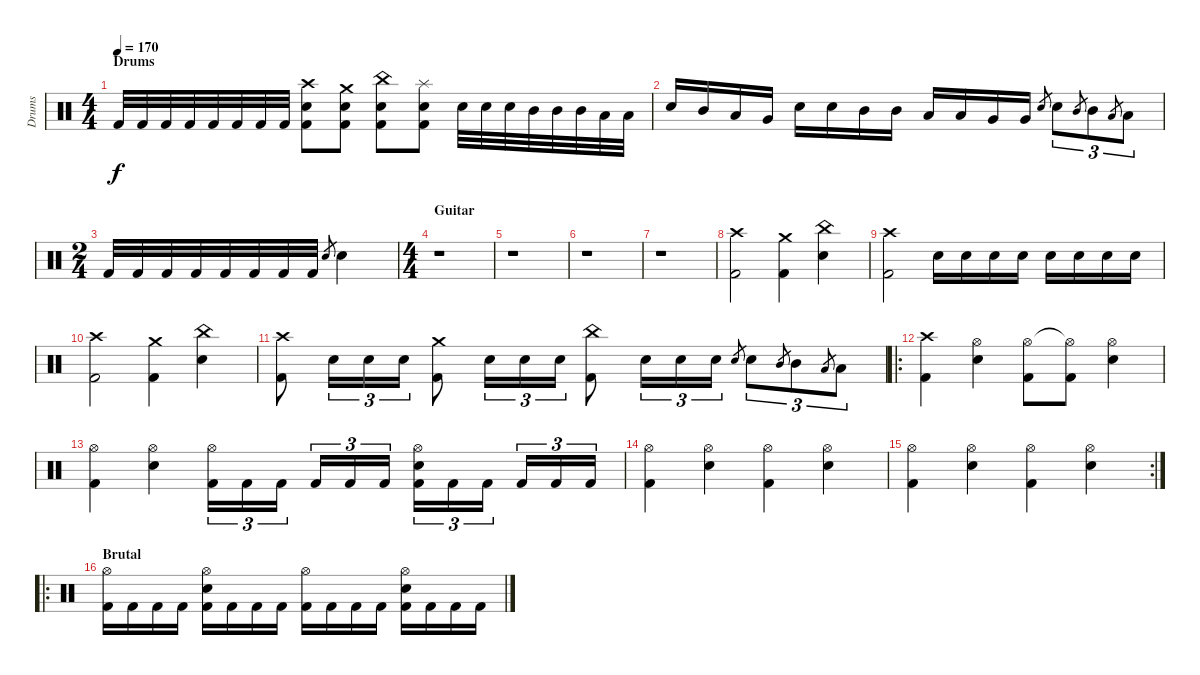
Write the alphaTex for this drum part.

\track ("Drums" "Drums") {instrument percussion}
\staff {score}
\articulation defaults
\ts (4 4)
\section ("" "Drums")
\tempo 170
\clef neutral
\ks c "Kick (hit) 2".32{dy f} "Kick (hit) 2".32 "Kick (hit) 2".32 "Kick (hit) 2".32 "Kick (hit) 2".32 "Kick (hit) 2".32 "Kick (hit) 2".32 "Kick (hit) 2".32
("Crash high (hit)" "Electric Snare (hit)" "Kick (hit) 2").8 ("Crash medium (hit)" "Electric Snare (hit)" "Kick (hit) 2").8 ("China (hit)" "Electric Snare (hit)" "Kick (hit) 2").8 ("Splash (hit)" "Electric Snare (hit)" "Kick (hit) 2").8 "Electric Snare (hit)".32 "Electric Snare (hit)".32 "Electric Snare (hit)".32 "Mid Tom (hit)".32 "Mid Tom (hit)".32 "Mid Tom (hit)".32 "Low Tom (hit)".32 "Low Tom (hit)".32 |
"Electric Snare (hit)".16 "Mid Tom (hit)".16 "Low Tom (hit)".16 "Very Low Tom (hit)".16 "Electric Snare (hit)".16 "Electric Snare (hit)".16 "Mid Tom (hit)".16 "Mid Tom (hit)".16 "Low Tom (hit)".16 "Low Tom (hit)".16 "Very Low Tom (hit)".16 "Very Low Tom (hit)".16 "Electric Snare (hit)".8{gr} "Electric Snare (hit)".8{tu (3 2)} "Mid Tom (hit)".8{gr} "Mid Tom (hit)".8{tu (3 2)} "Low Tom (hit)".8{gr} "Low Tom (hit)".8{tu (3 2)} |
\ts (2 4)
"Kick (hit) 2".32 "Kick (hit) 2".32 "Kick (hit) 2".32 "Kick (hit) 2".32 "Kick (hit) 2".32 "Kick (hit) 2".32 "Kick (hit) 2".32 "Kick (hit) 2".32 "Electric Snare (hit)".8{gr} "Electric Snare (hit)".4 |
\ts (4 4)
\section ("" "Guitar")
r.1 |
r.1 |
r.1 |
r.1 |
("Crash high (hit)" "Kick (hit) 2").2 ("Crash medium (hit)" "Kick (hit) 2").4 ("China (hit)" "Electric Snare (hit)").4 |
("Crash high (hit)" "Kick (hit) 2").2 "Electric Snare (hit)".16 "Electric Snare (hit)".16 "Electric Snare (hit)".16 "Electric Snare (hit)".16 "Electric Snare (hit)".16 "Electric Snare (hit)".16 "Electric Snare (hit)".16 "Electric Snare (hit)".16 |
("Crash high (hit)" "Kick (hit) 2").2 ("Crash medium (hit)" "Kick (hit) 2").4 ("China (hit)" "Electric Snare (hit)").4 |
("Crash high (hit)" "Kick (hit) 2").8 "Electric Snare (hit)".16{tu (3 2)} "Electric Snare (hit)".16{tu (3 2)} "Electric Snare (hit)".16{tu (3 2)} ("Crash medium (hit)" "Kick (hit) 2").8 "Electric Snare (hit)".16{tu (3 2)} "Electric Snare (hit)".16{tu (3 2)} "Electric Snare (hit)".16{tu (3 2)} ("China (hit)" "Kick (hit) 2").8 "Electric Snare (hit)".16{tu (3 2)} "Electric Snare (hit)".16{tu (3 2)} "Electric Snare (hit)".16{tu (3 2)} "Electric Snare (hit)".8{gr} "Electric Snare (hit)".8{tu (3 2)} "Mid Tom (hit)".8{gr} "Mid Tom (hit)".8{tu (3 2)} "Low Tom (hit)".8{gr} "Low Tom (hit)".8{tu (3 2)} |
\ro
("Crash high (hit)" "Kick (hit) 2").4 ("Hi-Hat (open)" "Electric Snare (hit)").4 ("Hi-Hat (open)" "Kick (hit) 2").8 ("Hi-Hat (open)"{t} "Kick (hit) 2").8 ("Hi-Hat (open)" "Electric Snare (hit)").4 |
("Hi-Hat (open)" "Kick (hit) 2").4 ("Hi-Hat (open)" "Electric Snare (hit)").4 ("Kick (hit) 2" "Hi-Hat (open)").16{tu (3 2)} "Kick (hit) 2".16{tu (3 2)} "Kick (hit) 2".16{tu (3 2)} "Kick (hit) 2".16{tu (3 2)} "Kick (hit) 2".16{tu (3 2)} "Kick (hit) 2".16{tu (3 2)} ("Kick (hit) 2" "Hi-Hat (open)" "Electric Snare (hit)").16{tu (3 2)} "Kick (hit) 2".16{tu (3 2)} "Kick (hit) 2".16{tu (3 2)} "Kick (hit) 2".16{tu (3 2)} "Kick (hit) 2".16{tu (3 2)} "Kick (hit) 2".16{tu (3 2)} |
("Hi-Hat (open)" "Kick (hit) 2").4 ("Hi-Hat (open)" "Electric Snare (hit)").4 ("Hi-Hat (open)" "Kick (hit) 2").4 ("Hi-Hat (open)" "Electric Snare (hit)").4 |
\rc 2
("Hi-Hat (open)" "Kick (hit) 2").4 ("Hi-Hat (open)" "Electric Snare (hit)").4 ("Hi-Hat (open)" "Kick (hit) 2").4 ("Hi-Hat (open)" "Electric Snare (hit)").4 |
\ro
\section ("" "Brutal")
("Kick (hit) 2" "Hi-Hat (open)").16 "Kick (hit) 2".16 "Kick (hit) 2".16 "Kick (hit) 2".16 ("Kick (hit) 2" "Hi-Hat (open)" "Electric Snare (hit)").16 "Kick (hit) 2".16 "Kick (hit) 2".16 "Kick (hit) 2".16 ("Kick (hit) 2" "Hi-Hat (open)").16 "Kick (hit) 2".16 "Kick (hit) 2".16 "Kick (hit) 2".16 ("Kick (hit) 2" "Hi-Hat (open)" "Electric Snare (hit)").16 "Kick (hit) 2".16 "Kick (hit) 2".16 "Kick (hit) 2".16
